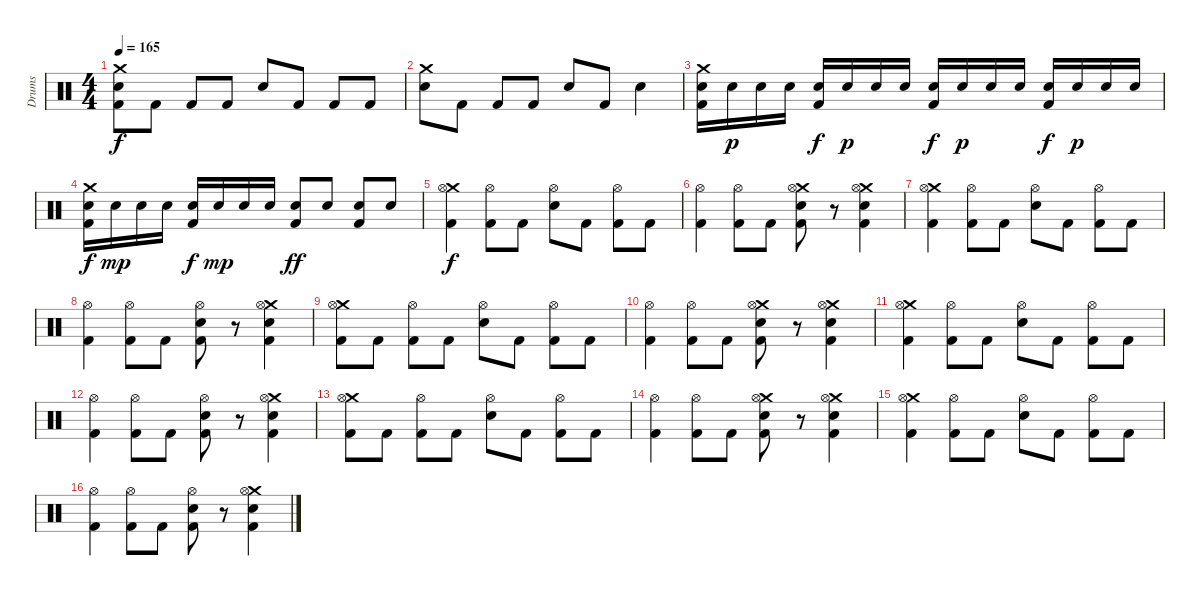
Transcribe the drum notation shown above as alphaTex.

\track ("Drums" "Drums") {instrument percussion}
\staff {score}
\articulation defaults
\ts (4 4)
\tempo 165
\clef neutral
\ks c
("Crash medium (hit)" "Snare (hit) 2" "Kick (hit) 2").8{dy f} "Kick (hit) 2".8 "Kick (hit) 2".8 "Kick (hit) 2".8 "Electric Snare (hit)".8 "Kick (hit) 2".8 "Kick (hit) 2".8 "Kick (hit) 2".8 |
("Crash medium (hit)" "Electric Snare (hit)").8 "Kick (hit) 2".8 "Kick (hit) 2".8 "Kick (hit) 2".8 "Electric Snare (hit)".8 "Kick (hit) 2".8 "Electric Snare (hit)".4 |
("Crash medium (hit)" "Snare (hit) 2" "Kick (hit) 2").16 "Electric Snare (hit)".16{dy p} "Electric Snare (hit)".16 "Electric Snare (hit)".16 ("Snare (hit) 2" "Kick (hit) 2").16{dy f} "Electric Snare (hit)".16{dy p} "Electric Snare (hit)".16 "Electric Snare (hit)".16 ("Snare (hit) 2" "Kick (hit) 2").16{dy f} "Electric Snare (hit)".16{dy p} "Electric Snare (hit)".16 "Electric Snare (hit)".16 ("Snare (hit) 2" "Kick (hit) 2").16{dy f} "Electric Snare (hit)".16{dy p} "Electric Snare (hit)".16 "Electric Snare (hit)".16 |
("Crash medium (hit)" "Snare (hit) 2" "Kick (hit) 2").16{dy f} "Electric Snare (hit)".16{dy mp} "Electric Snare (hit)".16 "Electric Snare (hit)".16 ("Snare (hit) 2" "Kick (hit) 2").16{dy f} "Electric Snare (hit)".16{dy mp} "Electric Snare (hit)".16 "Electric Snare (hit)".16 ("Snare (hit) 2" "Kick (hit) 2").8{dy ff} "Snare (hit) 2".8 ("Snare (hit) 2" "Kick (hit) 2").8 "Snare (hit) 2".8 |
("Crash medium (hit)" "Hi-Hat (open)" "Kick (hit) 2").4{dy f} ("Hi-Hat (open)" "Kick (hit) 2").8 "Kick (hit) 2".8 ("Hi-Hat (open)" "Electric Snare (hit)").8 "Kick (hit) 2".8 ("Hi-Hat (open)" "Kick (hit) 2").8 "Kick (hit) 2".8 |
("Hi-Hat (open)" "Kick (hit) 2").4 ("Hi-Hat (open)" "Kick (hit) 2").8 "Kick (hit) 2".8 ("Crash medium (hit)" "Hi-Hat (open)" "Electric Snare (hit)" "Kick (hit) 2").8 r.8 ("Crash medium (hit)" "Hi-Hat (open)" "Electric Snare (hit)" "Kick (hit) 2").4 |
("Crash medium (hit)" "Hi-Hat (open)" "Kick (hit) 2").4 ("Hi-Hat (open)" "Kick (hit) 2").8 "Kick (hit) 2".8 ("Hi-Hat (open)" "Electric Snare (hit)").8 "Kick (hit) 2".8 ("Hi-Hat (open)" "Kick (hit) 2").8 "Kick (hit) 2".8 |
("Hi-Hat (open)" "Kick (hit) 2").4 ("Hi-Hat (open)" "Kick (hit) 2").8 "Kick (hit) 2".8 ("Hi-Hat (open)" "Electric Snare (hit)" "Kick (hit) 2").8 r.8 ("Crash medium (hit)" "Hi-Hat (open)" "Electric Snare (hit)" "Kick (hit) 2").4 |
("Crash medium (hit)" "Hi-Hat (open)" "Kick (hit) 2").8 "Kick (hit) 2".8 ("Hi-Hat (open)" "Kick (hit) 2").8 "Kick (hit) 2".8 ("Hi-Hat (open)" "Electric Snare (hit)").8 "Kick (hit) 2".8 ("Hi-Hat (open)" "Kick (hit) 2").8 "Kick (hit) 2".8 |
("Hi-Hat (open)" "Kick (hit) 2").4 ("Hi-Hat (open)" "Kick (hit) 2").8 "Kick (hit) 2".8 ("Crash medium (hit)" "Hi-Hat (open)" "Electric Snare (hit)" "Kick (hit) 2").8 r.8 ("Crash medium (hit)" "Hi-Hat (open)" "Electric Snare (hit)" "Kick (hit) 2").4 |
("Crash medium (hit)" "Hi-Hat (open)" "Kick (hit) 2").4 ("Hi-Hat (open)" "Kick (hit) 2").8 "Kick (hit) 2".8 ("Hi-Hat (open)" "Electric Snare (hit)").8 "Kick (hit) 2".8 ("Hi-Hat (open)" "Kick (hit) 2").8 "Kick (hit) 2".8 |
("Hi-Hat (open)" "Kick (hit) 2").4 ("Hi-Hat (open)" "Kick (hit) 2").8 "Kick (hit) 2".8 ("Hi-Hat (open)" "Electric Snare (hit)" "Kick (hit) 2").8 r.8 ("Crash medium (hit)" "Hi-Hat (open)" "Electric Snare (hit)" "Kick (hit) 2").4 |
("Crash medium (hit)" "Hi-Hat (open)" "Kick (hit) 2").8 "Kick (hit) 2".8 ("Hi-Hat (open)" "Kick (hit) 2").8 "Kick (hit) 2".8 ("Hi-Hat (open)" "Electric Snare (hit)").8 "Kick (hit) 2".8 ("Hi-Hat (open)" "Kick (hit) 2").8 "Kick (hit) 2".8 |
("Hi-Hat (open)" "Kick (hit) 2").4 ("Hi-Hat (open)" "Kick (hit) 2").8 "Kick (hit) 2".8 ("Crash medium (hit)" "Hi-Hat (open)" "Electric Snare (hit)" "Kick (hit) 2").8 r.8 ("Crash medium (hit)" "Hi-Hat (open)" "Electric Snare (hit)" "Kick (hit) 2").4 |
("Crash medium (hit)" "Hi-Hat (open)" "Kick (hit) 2").4 ("Hi-Hat (open)" "Kick (hit) 2").8 "Kick (hit) 2".8 ("Hi-Hat (open)" "Electric Snare (hit)").8 "Kick (hit) 2".8 ("Hi-Hat (open)" "Kick (hit) 2").8 "Kick (hit) 2".8 |
("Hi-Hat (open)" "Kick (hit) 2").4 ("Hi-Hat (open)" "Kick (hit) 2").8 "Kick (hit) 2".8 ("Hi-Hat (open)" "Electric Snare (hit)" "Kick (hit) 2").8 r.8 ("Crash medium (hit)" "Hi-Hat (open)" "Electric Snare (hit)" "Kick (hit) 2").4
